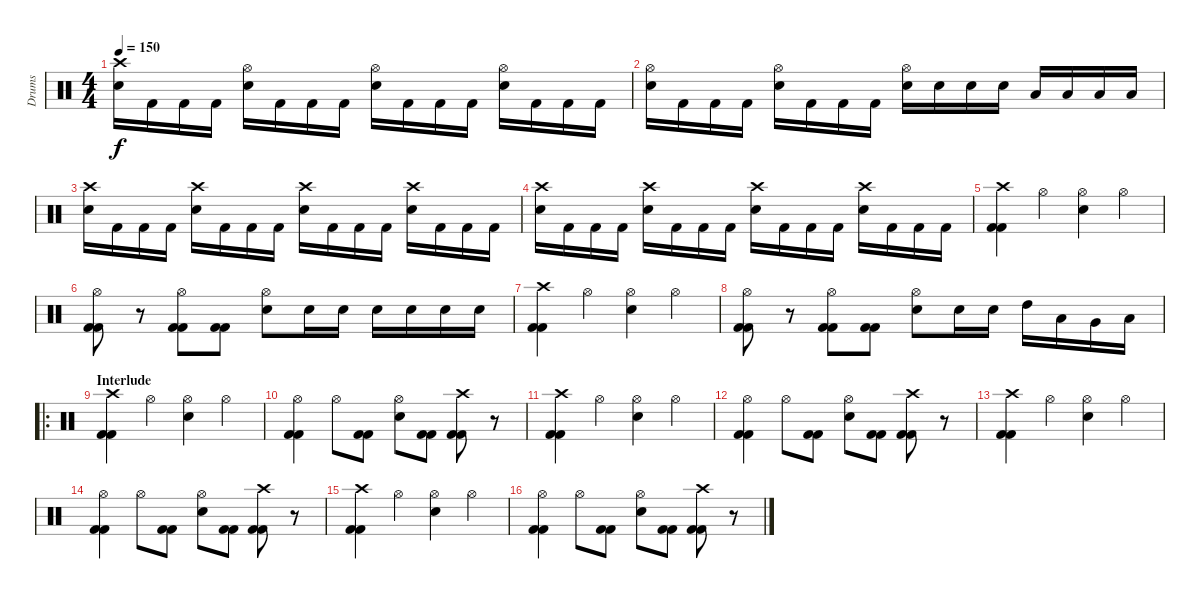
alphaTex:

\track ("Drums" "Drums") {instrument percussion}
\staff {score}
\articulation defaults
\ts (4 4)
\tempo 150
\clef neutral
\ks c
("Electric Snare (hit)" "Crash high (hit)").16{dy f} "Kick (hit) 2".16 "Kick (hit) 2".16 "Kick (hit) 2".16 ("Hi-Hat (open)" "Electric Snare (hit)").16 "Kick (hit) 2".16 "Kick (hit) 2".16 "Kick (hit) 2".16 ("Electric Snare (hit)" "Hi-Hat (open)").16 "Kick (hit) 2".16 "Kick (hit) 2".16 "Kick (hit) 2".16 ("Electric Snare (hit)" "Hi-Hat (open)").16 "Kick (hit) 2".16 "Kick (hit) 2".16 "Kick (hit) 2".16 |
("Electric Snare (hit)" "Hi-Hat (open)").16 "Kick (hit) 2".16 "Kick (hit) 2".16 "Kick (hit) 2".16 ("Hi-Hat (open)" "Electric Snare (hit)").16 "Kick (hit) 2".16 "Kick (hit) 2".16 "Kick (hit) 2".16 ("Electric Snare (hit)" "Hi-Hat (open)").16 "Electric Snare (hit)".16 "Electric Snare (hit)".16 "Electric Snare (hit)".16 "Low Tom (hit)".16 "Low Tom (hit)".16 "Low Tom (hit)".16 "Low Tom (hit)".16 |
("Electric Snare (hit)" "Crash high (hit)").16 "Kick (hit) 2".16 "Kick (hit) 2".16 "Kick (hit) 2".16 ("Crash high (hit)" "Electric Snare (hit)").16 "Kick (hit) 2".16 "Kick (hit) 2".16 "Kick (hit) 2".16 ("Electric Snare (hit)" "Crash high (hit)").16 "Kick (hit) 2".16 "Kick (hit) 2".16 "Kick (hit) 2".16 ("Electric Snare (hit)" "Crash high (hit)").16 "Kick (hit) 2".16 "Kick (hit) 2".16 "Kick (hit) 2".16 |
("Electric Snare (hit)" "Crash high (hit)").16 "Kick (hit) 2".16 "Kick (hit) 2".16 "Kick (hit) 2".16 ("Crash high (hit)" "Electric Snare (hit)").16 "Kick (hit) 2".16 "Kick (hit) 2".16 "Kick (hit) 2".16 ("Electric Snare (hit)" "Crash high (hit)").16 "Kick (hit) 2".16 "Kick (hit) 2".16 "Kick (hit) 2".16 ("Electric Snare (hit)" "Crash high (hit)").16 "Kick (hit) 2".16 "Kick (hit) 2".16 "Kick (hit) 2".16 |
("Crash high (hit)" "Kick (hit) 2" "Kick (hit) 2").4 "Hi-Hat (open)".4 ("Electric Snare (hit)" "Hi-Hat (open)").4 "Hi-Hat (open)".4 |
("Hi-Hat (open)" "Kick (hit) 2" "Kick (hit) 2").8 r.8 ("Hi-Hat (open)" "Kick (hit) 2" "Kick (hit) 2").8 ("Kick (hit) 2" "Kick (hit) 2").8 ("Hi-Hat (open)" "Electric Snare (hit)").8 "Electric Snare (hit)".16 "Electric Snare (hit)".16 "Electric Snare (hit)".16 "Electric Snare (hit)".16 "Electric Snare (hit)".16 "Electric Snare (hit)".16 |
("Crash high (hit)" "Kick (hit) 2" "Kick (hit) 2").4 "Hi-Hat (open)".4 ("Electric Snare (hit)" "Hi-Hat (open)").4 "Hi-Hat (open)".4 |
("Hi-Hat (open)" "Kick (hit) 2" "Kick (hit) 2").8 r.8 ("Hi-Hat (open)" "Kick (hit) 2" "Kick (hit) 2").8 ("Kick (hit) 2" "Kick (hit) 2").8 ("Hi-Hat (open)" "Electric Snare (hit)").8 "Electric Snare (hit)".16 "Electric Snare (hit)".16 "High Tom (hit)".16 "Low Tom (hit)".16 "Very Low Tom (hit)".16 "Low Floor Tom (hit)".16 |
\ro
\section ("" "Interlude")
("Crash high (hit)" "Kick (hit) 2" "Kick (hit) 2").4 "Hi-Hat (open)".4 ("Electric Snare (hit)" "Hi-Hat (open)").4 "Hi-Hat (open)".4 |
("Hi-Hat (open)" "Kick (hit) 2" "Kick (hit) 2").4 "Hi-Hat (open)".8 ("Kick (hit) 2" "Kick (hit) 2").8 ("Hi-Hat (open)" "Electric Snare (hit)").8 ("Kick (hit) 2" "Kick (hit) 2").8 ("Crash high (hit)" "Kick (hit) 2" "Kick (hit) 2").8 r.8 |
("Crash high (hit)" "Kick (hit) 2" "Kick (hit) 2").4 "Hi-Hat (open)".4 ("Electric Snare (hit)" "Hi-Hat (open)").4 "Hi-Hat (open)".4 |
("Hi-Hat (open)" "Kick (hit) 2" "Kick (hit) 2").4 "Hi-Hat (open)".8 ("Kick (hit) 2" "Kick (hit) 2").8 ("Hi-Hat (open)" "Electric Snare (hit)").8 ("Kick (hit) 2" "Kick (hit) 2").8 ("Crash high (hit)" "Kick (hit) 2" "Kick (hit) 2").8 r.8 |
("Crash high (hit)" "Kick (hit) 2" "Kick (hit) 2").4 "Hi-Hat (open)".4 ("Electric Snare (hit)" "Hi-Hat (open)").4 "Hi-Hat (open)".4 |
("Hi-Hat (open)" "Kick (hit) 2" "Kick (hit) 2").4 "Hi-Hat (open)".8 ("Kick (hit) 2" "Kick (hit) 2").8 ("Hi-Hat (open)" "Electric Snare (hit)").8 ("Kick (hit) 2" "Kick (hit) 2").8 ("Crash high (hit)" "Kick (hit) 2" "Kick (hit) 2").8 r.8 |
("Crash high (hit)" "Kick (hit) 2" "Kick (hit) 2").4 "Hi-Hat (open)".4 ("Electric Snare (hit)" "Hi-Hat (open)").4 "Hi-Hat (open)".4 |
("Hi-Hat (open)" "Kick (hit) 2" "Kick (hit) 2").4 "Hi-Hat (open)".8 ("Kick (hit) 2" "Kick (hit) 2").8 ("Hi-Hat (open)" "Electric Snare (hit)").8 ("Kick (hit) 2" "Kick (hit) 2").8 ("Crash high (hit)" "Kick (hit) 2" "Kick (hit) 2").8 r.8
